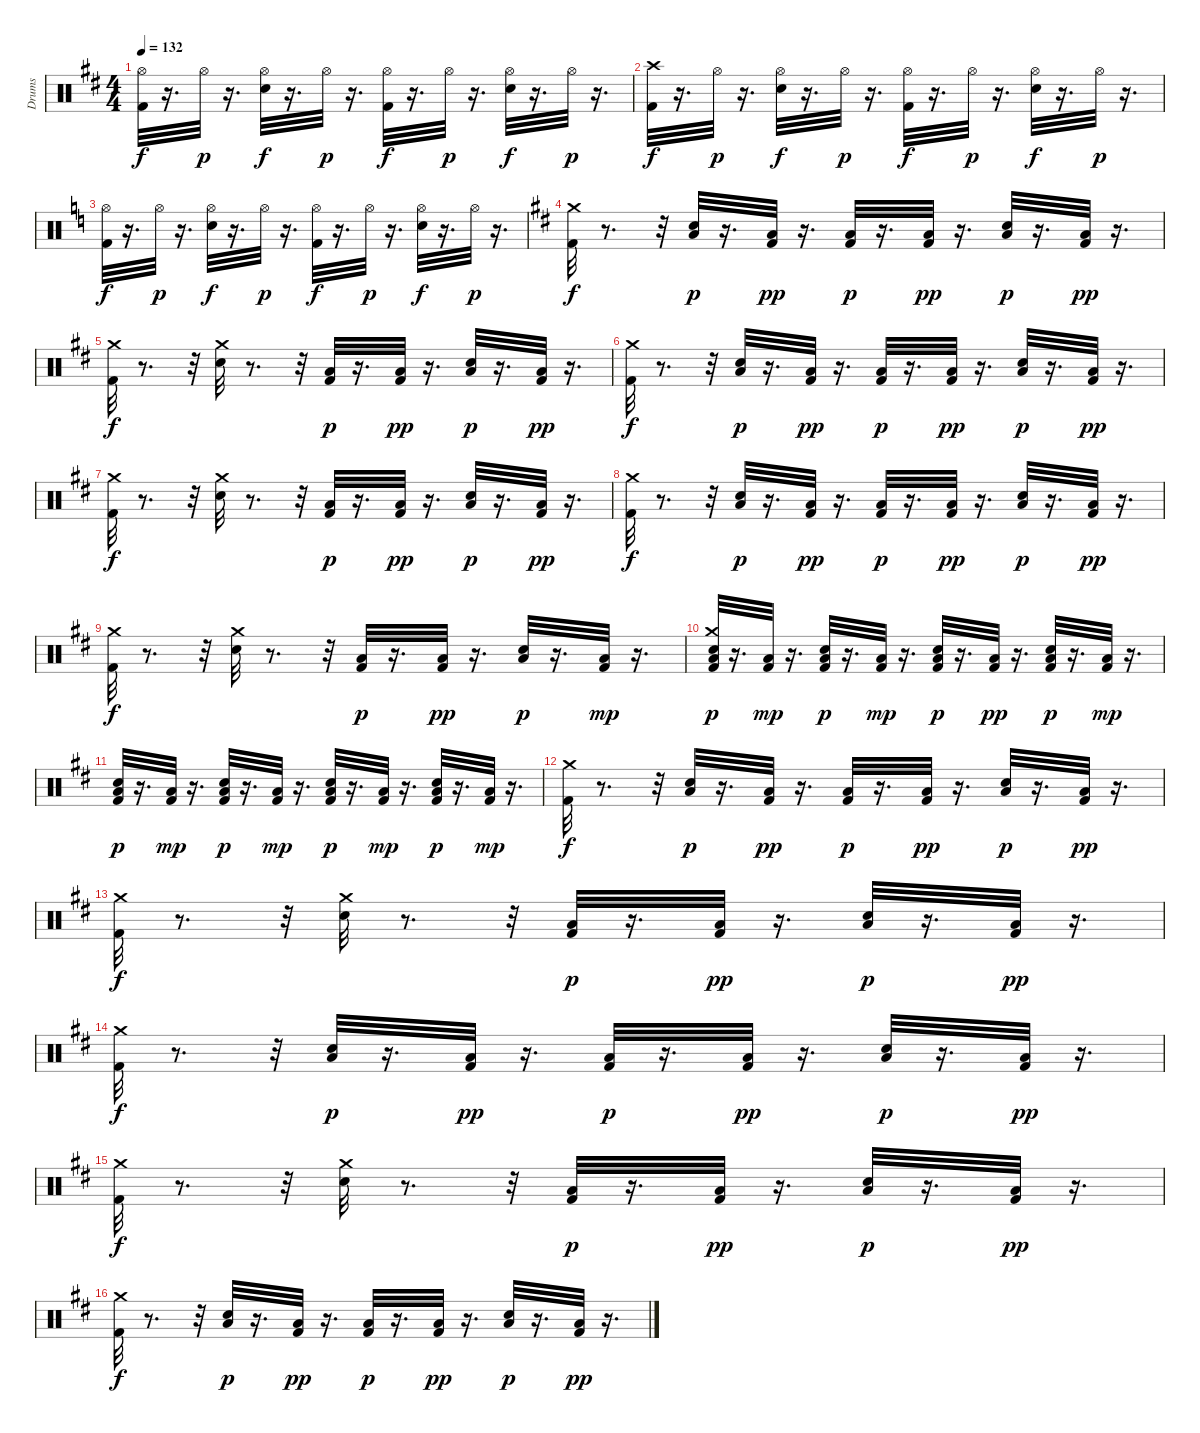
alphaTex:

\track ("Drums" "Drums") {instrument percussion}
\staff {score}
\articulation defaults
\ts (4 4)
\tempo 132
\clef neutral
\ks d
("Hi-Hat (open)" "Kick (hit) 2").32{dy f} r.16{d} "Hi-Hat (open)".32{dy p} r.16{d} ("Hi-Hat (open)" "Electric Snare (hit)").32{dy f} r.16{d} "Hi-Hat (open)".32{dy p} r.16{d} ("Hi-Hat (open)" "Kick (hit) 2").32{dy f} r.16{d} "Hi-Hat (open)".32{dy p} r.16{d} ("Hi-Hat (open)" "Electric Snare (hit)").32{dy f} r.16{d} "Hi-Hat (open)".32{dy p} r.16{d} |
("Crash high (hit)" "Kick (hit) 2").32{dy f} r.16{d} "Hi-Hat (open)".32{dy p} r.16{d} ("Hi-Hat (open)" "Electric Snare (hit)").32{dy f} r.16{d} "Hi-Hat (open)".32{dy p} r.16{d} ("Hi-Hat (open)" "Kick (hit) 2").32{dy f} r.16{d} "Hi-Hat (open)".32{dy p} r.16{d} ("Hi-Hat (open)" "Electric Snare (hit)").32{dy f} r.16{d} "Hi-Hat (open)".32{dy p} r.16{d} |
\ks c
("Hi-Hat (open)" "Kick (hit) 2").32{dy f} r.16{d} "Hi-Hat (open)".32{dy p} r.16{d} ("Hi-Hat (open)" "Electric Snare (hit)").32{dy f} r.16{d} "Hi-Hat (open)".32{dy p} r.16{d} ("Hi-Hat (open)" "Kick (hit) 2").32{dy f} r.16{d} "Hi-Hat (open)".32{dy p} r.16{d} ("Hi-Hat (open)" "Electric Snare (hit)").32{dy f} r.16{d} "Hi-Hat (open)".32{dy p} r.16{d} |
\ks d
("Kick (hit) 2" "Crash medium (hit)").32{dy f} r.8{d} r.32 ("Low Floor Tom (hit)" "Electric Snare (hit)").32{dy p} r.16{d} ("Kick (hit) 2" "Low Floor Tom (hit)").32{dy pp} r.16{d} ("Kick (hit) 2" "Low Floor Tom (hit)").32{dy p} r.16{d} ("Kick (hit) 2" "Low Floor Tom (hit)").32{dy pp} r.16{d} ("Low Floor Tom (hit)" "Electric Snare (hit)").32{dy p} r.16{d} ("Kick (hit) 2" "Low Floor Tom (hit)").32{dy pp} r.16{d} |
("Kick (hit) 2" "Crash medium (hit)").32{dy f} r.8{d} r.32 ("Electric Snare (hit)" "Crash medium (hit)").32 r.8{d} r.32 ("Low Floor Tom (hit)" "Kick (hit) 2").32{dy p} r.16{d} ("Kick (hit) 2" "Low Floor Tom (hit)").32{dy pp} r.16{d} ("Low Floor Tom (hit)" "Electric Snare (hit)").32{dy p} r.16{d} ("Kick (hit) 2" "Low Floor Tom (hit)").32{dy pp} r.16{d} |
("Kick (hit) 2" "Crash medium (hit)").32{dy f} r.8{d} r.32 ("Low Floor Tom (hit)" "Electric Snare (hit)").32{dy p} r.16{d} ("Kick (hit) 2" "Low Floor Tom (hit)").32{dy pp} r.16{d} ("Kick (hit) 2" "Low Floor Tom (hit)").32{dy p} r.16{d} ("Kick (hit) 2" "Low Floor Tom (hit)").32{dy pp} r.16{d} ("Low Floor Tom (hit)" "Electric Snare (hit)").32{dy p} r.16{d} ("Kick (hit) 2" "Low Floor Tom (hit)").32{dy pp} r.16{d} |
("Kick (hit) 2" "Crash medium (hit)").32{dy f} r.8{d} r.32 ("Electric Snare (hit)" "Crash medium (hit)").32 r.8{d} r.32 ("Low Floor Tom (hit)" "Kick (hit) 2").32{dy p} r.16{d} ("Kick (hit) 2" "Low Floor Tom (hit)").32{dy pp} r.16{d} ("Low Floor Tom (hit)" "Electric Snare (hit)").32{dy p} r.16{d} ("Kick (hit) 2" "Low Floor Tom (hit)").32{dy pp} r.16{d} |
("Kick (hit) 2" "Crash medium (hit)").32{dy f} r.8{d} r.32 ("Low Floor Tom (hit)" "Electric Snare (hit)").32{dy p} r.16{d} ("Kick (hit) 2" "Low Floor Tom (hit)").32{dy pp} r.16{d} ("Kick (hit) 2" "Low Floor Tom (hit)").32{dy p} r.16{d} ("Kick (hit) 2" "Low Floor Tom (hit)").32{dy pp} r.16{d} ("Low Floor Tom (hit)" "Electric Snare (hit)").32{dy p} r.16{d} ("Kick (hit) 2" "Low Floor Tom (hit)").32{dy pp} r.16{d} |
("Kick (hit) 2" "Crash medium (hit)").32{dy f} r.8{d} r.32 ("Crash medium (hit)" "Electric Snare (hit)").32 r.8{d} r.32 ("Low Floor Tom (hit)" "Kick (hit) 2").32{dy p} r.16{d} ("Kick (hit) 2" "Low Floor Tom (hit)").32{dy pp} r.16{d} ("Low Floor Tom (hit)" "Electric Snare (hit)").32{dy p} r.16{d} ("Low Floor Tom (hit)" "Kick (hit) 2").32{dy mp} r.16{d} |
("Electric Snare (hit)" "Crash medium (hit)" "Low Floor Tom (hit)" "Kick (hit) 2").32{dy p} r.16{d} ("Low Floor Tom (hit)" "Kick (hit) 2").32{dy mp} r.16{d} ("Kick (hit) 2" "Low Floor Tom (hit)" "Electric Snare (hit)").32{dy p} r.16{d} ("Low Floor Tom (hit)" "Kick (hit) 2").32{dy mp} r.16{d} ("Electric Snare (hit)" "Kick (hit) 2" "Low Floor Tom (hit)").32{dy p} r.16{d} ("Kick (hit) 2" "Low Floor Tom (hit)").32{dy pp} r.16{d} ("Kick (hit) 2" "Low Floor Tom (hit)" "Electric Snare (hit)").32{dy p} r.16{d} ("Low Floor Tom (hit)" "Kick (hit) 2").32{dy mp} r.16{d} |
("Electric Snare (hit)" "Low Floor Tom (hit)" "Kick (hit) 2").32{dy p} r.16{d} ("Low Floor Tom (hit)" "Kick (hit) 2").32{dy mp} r.16{d} ("Kick (hit) 2" "Low Floor Tom (hit)" "Electric Snare (hit)").32{dy p} r.16{d} ("Low Floor Tom (hit)" "Kick (hit) 2").32{dy mp} r.16{d} ("Electric Snare (hit)" "Low Floor Tom (hit)" "Kick (hit) 2").32{dy p} r.16{d} ("Low Floor Tom (hit)" "Kick (hit) 2").32{dy mp} r.16{d} ("Kick (hit) 2" "Low Floor Tom (hit)" "Electric Snare (hit)").32{dy p} r.16{d} ("Low Floor Tom (hit)" "Kick (hit) 2").32{dy mp} r.16{d} |
("Kick (hit) 2" "Crash medium (hit)").32{dy f} r.8{d} r.32 ("Low Floor Tom (hit)" "Electric Snare (hit)").32{dy p} r.16{d} ("Kick (hit) 2" "Low Floor Tom (hit)").32{dy pp} r.16{d} ("Kick (hit) 2" "Low Floor Tom (hit)").32{dy p} r.16{d} ("Kick (hit) 2" "Low Floor Tom (hit)").32{dy pp} r.16{d} ("Low Floor Tom (hit)" "Electric Snare (hit)").32{dy p} r.16{d} ("Kick (hit) 2" "Low Floor Tom (hit)").32{dy pp} r.16{d} |
("Kick (hit) 2" "Crash medium (hit)").32{dy f} r.8{d} r.32 ("Electric Snare (hit)" "Crash medium (hit)").32 r.8{d} r.32 ("Low Floor Tom (hit)" "Kick (hit) 2").32{dy p} r.16{d} ("Kick (hit) 2" "Low Floor Tom (hit)").32{dy pp} r.16{d} ("Low Floor Tom (hit)" "Electric Snare (hit)").32{dy p} r.16{d} ("Kick (hit) 2" "Low Floor Tom (hit)").32{dy pp} r.16{d} |
("Kick (hit) 2" "Crash medium (hit)").32{dy f} r.8{d} r.32 ("Low Floor Tom (hit)" "Electric Snare (hit)").32{dy p} r.16{d} ("Kick (hit) 2" "Low Floor Tom (hit)").32{dy pp} r.16{d} ("Kick (hit) 2" "Low Floor Tom (hit)").32{dy p} r.16{d} ("Kick (hit) 2" "Low Floor Tom (hit)").32{dy pp} r.16{d} ("Low Floor Tom (hit)" "Electric Snare (hit)").32{dy p} r.16{d} ("Kick (hit) 2" "Low Floor Tom (hit)").32{dy pp} r.16{d} |
("Kick (hit) 2" "Crash medium (hit)").32{dy f} r.8{d} r.32 ("Electric Snare (hit)" "Crash medium (hit)").32 r.8{d} r.32 ("Low Floor Tom (hit)" "Kick (hit) 2").32{dy p} r.16{d} ("Kick (hit) 2" "Low Floor Tom (hit)").32{dy pp} r.16{d} ("Low Floor Tom (hit)" "Electric Snare (hit)").32{dy p} r.16{d} ("Kick (hit) 2" "Low Floor Tom (hit)").32{dy pp} r.16{d} |
("Kick (hit) 2" "Crash medium (hit)").32{dy f} r.8{d} r.32 ("Low Floor Tom (hit)" "Electric Snare (hit)").32{dy p} r.16{d} ("Kick (hit) 2" "Low Floor Tom (hit)").32{dy pp} r.16{d} ("Kick (hit) 2" "Low Floor Tom (hit)").32{dy p} r.16{d} ("Kick (hit) 2" "Low Floor Tom (hit)").32{dy pp} r.16{d} ("Low Floor Tom (hit)" "Electric Snare (hit)").32{dy p} r.16{d} ("Kick (hit) 2" "Low Floor Tom (hit)").32{dy pp} r.16{d}
